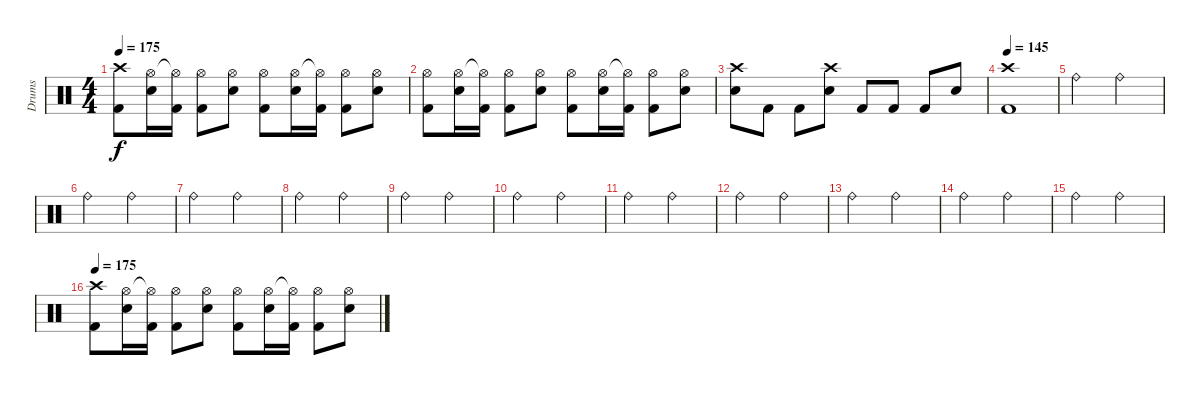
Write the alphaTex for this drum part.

\track ("Drums" "Drums") {instrument percussion}
\staff {score}
\articulation defaults
\ts (4 4)
\tempo 175
\clef neutral
\ks c
("Crash high (hit)" "Kick (hit) 2").8{dy f} ("Hi-Hat (open)" "Electric Snare (hit)").16 ("Hi-Hat (open)"{t} "Kick (hit) 2").16 ("Hi-Hat (open)" "Kick (hit) 2").8 ("Hi-Hat (open)" "Electric Snare (hit)").8 ("Hi-Hat (open)" "Kick (hit) 2").8 ("Hi-Hat (open)" "Electric Snare (hit)").16 ("Hi-Hat (open)"{t} "Kick (hit) 2").16 ("Hi-Hat (open)" "Kick (hit) 2").8 ("Hi-Hat (open)" "Electric Snare (hit)").8 |
("Hi-Hat (open)" "Kick (hit) 2").8 ("Hi-Hat (open)" "Electric Snare (hit)").16 ("Hi-Hat (open)"{t} "Kick (hit) 2").16 ("Hi-Hat (open)" "Kick (hit) 2").8 ("Hi-Hat (open)" "Electric Snare (hit)").8 ("Hi-Hat (open)" "Kick (hit) 2").8 ("Hi-Hat (open)" "Electric Snare (hit)").16 ("Hi-Hat (open)"{t} "Kick (hit) 2").16 ("Hi-Hat (open)" "Kick (hit) 2").8 ("Hi-Hat (open)" "Electric Snare (hit)").8 |
("Crash high (hit)" "Electric Snare (hit)").8 "Kick (hit) 2".8 "Kick (hit) 2".8 ("Crash high (hit)" "Electric Snare (hit)").8 "Kick (hit) 2".8 "Kick (hit) 2".8 "Kick (hit) 2".8 "Electric Snare (hit)".8 |
\tempo 145
("Crash high (hit)" "Kick (hit) 2").1 |
"Ride (bell)".2 "Ride (bell)".2 |
"Ride (bell)".2 "Ride (bell)".2 |
"Ride (bell)".2 "Ride (bell)".2 |
"Ride (bell)".2 "Ride (bell)".2 |
"Ride (bell)".2 "Ride (bell)".2 |
"Ride (bell)".2 "Ride (bell)".2 |
"Ride (bell)".2 "Ride (bell)".2 |
"Ride (bell)".2 "Ride (bell)".2 |
"Ride (bell)".2 "Ride (bell)".2 |
"Ride (bell)".2 "Ride (bell)".2 |
"Ride (bell)".2 "Ride (bell)".2 |
\tempo 175
("Crash high (hit)" "Kick (hit) 2").8 ("Hi-Hat (open)" "Electric Snare (hit)").16 ("Hi-Hat (open)"{t} "Kick (hit) 2").16 ("Hi-Hat (open)" "Kick (hit) 2").8 ("Hi-Hat (open)" "Electric Snare (hit)").8 ("Hi-Hat (open)" "Kick (hit) 2").8 ("Hi-Hat (open)" "Electric Snare (hit)").16 ("Hi-Hat (open)"{t} "Kick (hit) 2").16 ("Hi-Hat (open)" "Kick (hit) 2").8 ("Hi-Hat (open)" "Electric Snare (hit)").8
